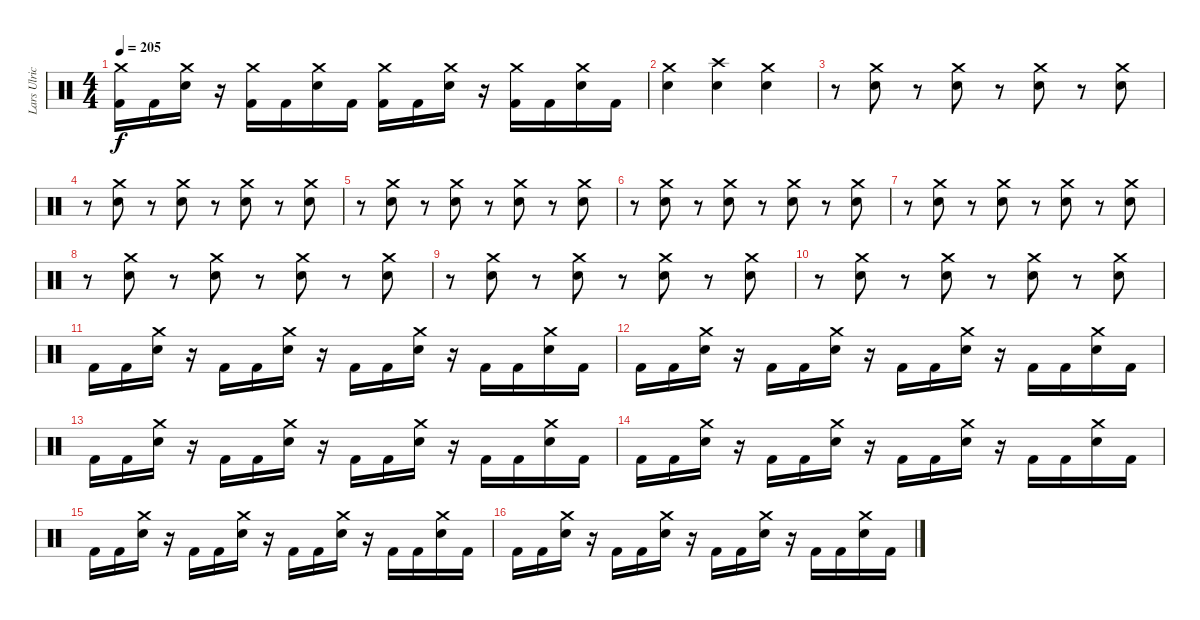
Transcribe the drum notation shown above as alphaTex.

\track ("Lars Ulrich" "Lars Ulric") {instrument percussion}
\staff {score}
\articulation defaults
\ts (4 4)
\tempo 205
\clef neutral
\ks c
("Crash medium (hit)" "Kick (hit) 2").16{dy f} "Kick (hit) 2".16 ("Crash medium (hit)" "Electric Snare (hit)").16 r.16 ("Crash medium (hit)" "Kick (hit) 2").16 "Kick (hit) 2".16 ("Crash medium (hit)" "Electric Snare (hit)").16 "Kick (hit) 2".16 ("Crash medium (hit)" "Kick (hit) 2").16 "Kick (hit) 2".16 ("Crash medium (hit)" "Electric Snare (hit)").16 r.16 ("Crash medium (hit)" "Kick (hit) 2").16 "Kick (hit) 2".16 ("Crash medium (hit)" "Electric Snare (hit)").16 "Kick (hit) 2".16 |
("Crash medium (hit)" "Electric Snare (hit)").4 ("Crash high (hit)" "Electric Snare (hit)").4 ("Crash medium (hit)" "Electric Snare (hit)").4 |
r.8 ("Crash medium (hit)" "Electric Snare (hit)").8 r.8 ("Crash medium (hit)" "Electric Snare (hit)").8 r.8 ("Crash medium (hit)" "Electric Snare (hit)").8 r.8 ("Crash medium (hit)" "Electric Snare (hit)").8 |
r.8 ("Crash medium (hit)" "Electric Snare (hit)").8 r.8 ("Crash medium (hit)" "Electric Snare (hit)").8 r.8 ("Crash medium (hit)" "Electric Snare (hit)").8 r.8 ("Crash medium (hit)" "Electric Snare (hit)").8 |
r.8 ("Crash medium (hit)" "Electric Snare (hit)").8 r.8 ("Crash medium (hit)" "Electric Snare (hit)").8 r.8 ("Crash medium (hit)" "Electric Snare (hit)").8 r.8 ("Crash medium (hit)" "Electric Snare (hit)").8 |
r.8 ("Crash medium (hit)" "Electric Snare (hit)").8 r.8 ("Crash medium (hit)" "Electric Snare (hit)").8 r.8 ("Crash medium (hit)" "Electric Snare (hit)").8 r.8 ("Crash medium (hit)" "Electric Snare (hit)").8 |
r.8 ("Crash medium (hit)" "Electric Snare (hit)").8 r.8 ("Crash medium (hit)" "Electric Snare (hit)").8 r.8 ("Crash medium (hit)" "Electric Snare (hit)").8 r.8 ("Crash medium (hit)" "Electric Snare (hit)").8 |
r.8 ("Crash medium (hit)" "Electric Snare (hit)").8 r.8 ("Crash medium (hit)" "Electric Snare (hit)").8 r.8 ("Crash medium (hit)" "Electric Snare (hit)").8 r.8 ("Crash medium (hit)" "Electric Snare (hit)").8 |
r.8 ("Crash medium (hit)" "Electric Snare (hit)").8 r.8 ("Crash medium (hit)" "Electric Snare (hit)").8 r.8 ("Crash medium (hit)" "Electric Snare (hit)").8 r.8 ("Crash medium (hit)" "Electric Snare (hit)").8 |
r.8 ("Crash medium (hit)" "Electric Snare (hit)").8 r.8 ("Crash medium (hit)" "Electric Snare (hit)").8 r.8 ("Crash medium (hit)" "Electric Snare (hit)").8 r.8 ("Crash medium (hit)" "Electric Snare (hit)").8 |
"Kick (hit) 2".16 "Kick (hit) 2".16 ("Crash medium (hit)" "Electric Snare (hit)").16 r.16 "Kick (hit) 2".16 "Kick (hit) 2".16 ("Crash medium (hit)" "Electric Snare (hit)").16 r.16 "Kick (hit) 2".16 "Kick (hit) 2".16 ("Crash medium (hit)" "Electric Snare (hit)").16 r.16 "Kick (hit) 2".16 "Kick (hit) 2".16 ("Crash medium (hit)" "Electric Snare (hit)").16 "Kick (hit) 2".16 |
"Kick (hit) 2".16 "Kick (hit) 2".16 ("Crash medium (hit)" "Electric Snare (hit)").16 r.16 "Kick (hit) 2".16 "Kick (hit) 2".16 ("Crash medium (hit)" "Electric Snare (hit)").16 r.16 "Kick (hit) 2".16 "Kick (hit) 2".16 ("Crash medium (hit)" "Electric Snare (hit)").16 r.16 "Kick (hit) 2".16 "Kick (hit) 2".16 ("Crash medium (hit)" "Electric Snare (hit)").16 "Kick (hit) 2".16 |
"Kick (hit) 2".16 "Kick (hit) 2".16 ("Crash medium (hit)" "Electric Snare (hit)").16 r.16 "Kick (hit) 2".16 "Kick (hit) 2".16 ("Crash medium (hit)" "Electric Snare (hit)").16 r.16 "Kick (hit) 2".16 "Kick (hit) 2".16 ("Crash medium (hit)" "Electric Snare (hit)").16 r.16 "Kick (hit) 2".16 "Kick (hit) 2".16 ("Crash medium (hit)" "Electric Snare (hit)").16 "Kick (hit) 2".16 |
"Kick (hit) 2".16 "Kick (hit) 2".16 ("Crash medium (hit)" "Electric Snare (hit)").16 r.16 "Kick (hit) 2".16 "Kick (hit) 2".16 ("Crash medium (hit)" "Electric Snare (hit)").16 r.16 "Kick (hit) 2".16 "Kick (hit) 2".16 ("Crash medium (hit)" "Electric Snare (hit)").16 r.16 "Kick (hit) 2".16 "Kick (hit) 2".16 ("Crash medium (hit)" "Electric Snare (hit)").16 "Kick (hit) 2".16 |
"Kick (hit) 2".16 "Kick (hit) 2".16 ("Crash medium (hit)" "Electric Snare (hit)").16 r.16 "Kick (hit) 2".16 "Kick (hit) 2".16 ("Crash medium (hit)" "Electric Snare (hit)").16 r.16 "Kick (hit) 2".16 "Kick (hit) 2".16 ("Crash medium (hit)" "Electric Snare (hit)").16 r.16 "Kick (hit) 2".16 "Kick (hit) 2".16 ("Crash medium (hit)" "Electric Snare (hit)").16 "Kick (hit) 2".16 |
"Kick (hit) 2".16 "Kick (hit) 2".16 ("Crash medium (hit)" "Electric Snare (hit)").16 r.16 "Kick (hit) 2".16 "Kick (hit) 2".16 ("Crash medium (hit)" "Electric Snare (hit)").16 r.16 "Kick (hit) 2".16 "Kick (hit) 2".16 ("Crash medium (hit)" "Electric Snare (hit)").16 r.16 "Kick (hit) 2".16 "Kick (hit) 2".16 ("Crash medium (hit)" "Electric Snare (hit)").16 "Kick (hit) 2".16
